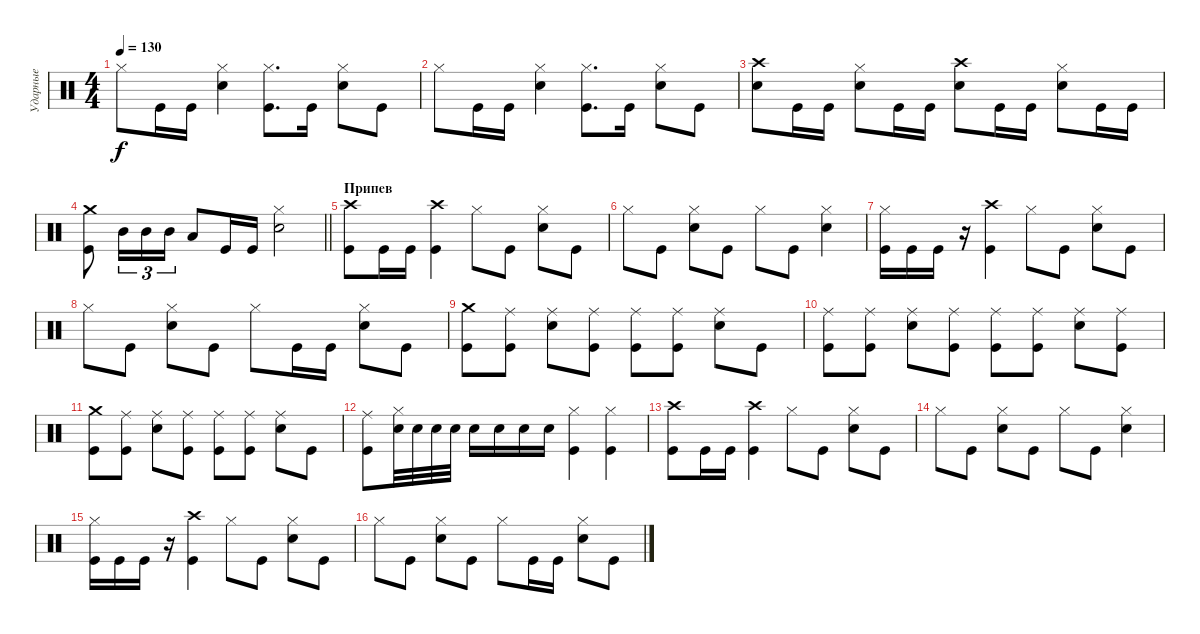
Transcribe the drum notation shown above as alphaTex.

\track ("Ударные" "Ударные") {instrument percussion}
\staff {score}
\articulation defaults
\ts (4 4)
\tempo 130
\clef neutral
\ks c "Hi-Hat (closed)".8{dy f} "Kick (hit)".16 "Kick (hit)".16
("Hi-Hat (closed)" "Snare (hit) 2").4 ("Hi-Hat (closed)" "Kick (hit)").8{d} "Kick (hit)".16 ("Hi-Hat (closed)" "Snare (hit) 2").8 "Kick (hit)".8 |
"Hi-Hat (closed)".8 "Kick (hit)".16 "Kick (hit)".16 ("Hi-Hat (closed)" "Snare (hit) 2").4 ("Hi-Hat (closed)" "Kick (hit)").8{d} "Kick (hit)".16 ("Hi-Hat (closed)" "Snare (hit) 2").8 "Kick (hit)".8 |
("Crash high (hit)" "Snare (hit) 2").8 "Kick (hit)".16 "Kick (hit)".16 ("Hi-Hat (closed)" "Snare (hit) 2").8 "Kick (hit)".16 "Kick (hit)".16 ("Crash high (hit)" "Snare (hit) 2").8 "Kick (hit)".16 "Kick (hit)".16 ("Hi-Hat (closed)" "Snare (hit) 2").8 "Kick (hit)".16 "Kick (hit)".16 |
\barLineRight lightlight
("Crash medium (hit)" "Kick (hit)").8 "Mid Tom (hit)".16{tu (3 2)} "Mid Tom (hit)".16{tu (3 2)} "Mid Tom (hit)".16{tu (3 2)} "Low Tom (hit)".8 "Kick (hit)".16 "Kick (hit)".16 ("Hi-Hat (closed)" "Snare (hit) 2").2 |
\section ("" "Припев")
("Crash high (hit)" "Kick (hit)").8 "Kick (hit)".16 "Kick (hit)".16 ("Crash high (hit)" "Kick (hit)").4 "Hi-Hat (closed)".8 "Kick (hit)".8 ("Hi-Hat (closed)" "Snare (hit) 2").8 "Kick (hit)".8 |
"Hi-Hat (closed)".8 "Kick (hit)".8 ("Hi-Hat (closed)" "Snare (hit) 2").8 "Kick (hit)".8 "Hi-Hat (closed)".8 "Kick (hit)".8 ("Hi-Hat (closed)" "Snare (hit) 2").4 |
("Hi-Hat (closed)" "Kick (hit)").16 "Kick (hit)".16 "Kick (hit)".16 r.16 ("Crash high (hit)" "Kick (hit)").4 "Hi-Hat (closed)".8 "Kick (hit)".8 ("Hi-Hat (closed)" "Snare (hit) 2").8 "Kick (hit)".8 |
"Hi-Hat (closed)".8 "Kick (hit)".8 ("Hi-Hat (closed)" "Snare (hit) 2").8 "Kick (hit)".8 "Hi-Hat (closed)".8 "Kick (hit)".16 "Kick (hit)".16 ("Hi-Hat (closed)" "Snare (hit) 2").8 "Kick (hit)".8 |
("Crash medium (hit)" "Kick (hit)").8 ("Ride (middle)" "Kick (hit)").8 ("Ride (middle)" "Snare (hit) 2").8 ("Ride (middle)" "Kick (hit)").8 ("Ride (middle)" "Kick (hit)").8 ("Ride (middle)" "Kick (hit)").8 ("Ride (middle)" "Snare (hit) 2").8 "Kick (hit)".8 |
("Ride (middle)" "Kick (hit)").8 ("Ride (middle)" "Kick (hit)").8 ("Ride (middle)" "Snare (hit) 2").8 ("Ride (middle)" "Kick (hit)").8 ("Ride (middle)" "Kick (hit)").8 ("Ride (middle)" "Kick (hit)").8 ("Ride (middle)" "Snare (hit) 2").8 ("Ride (middle)" "Kick (hit)").8 |
("Crash medium (hit)" "Kick (hit)").8 ("Ride (middle)" "Kick (hit)").8 ("Ride (middle)" "Snare (hit) 2").8 ("Ride (middle)" "Kick (hit)").8 ("Ride (middle)" "Kick (hit)").8 ("Ride (middle)" "Kick (hit)").8 ("Ride (middle)" "Snare (hit) 2").8 "Kick (hit)".8 |
("Ride (middle)" "Kick (hit)").8 ("Hi-Hat (closed)" "Snare (hit) 2").32 "Snare (hit) 2".32 "Snare (hit) 2".32 "Snare (hit) 2".32 "Snare (hit) 2".16 "Snare (hit) 2".16 "Snare (hit) 2".16 "Snare (hit) 2".16 ("Hi-Hat (closed)" "Kick (hit)").4 ("Hi-Hat (closed)" "Kick (hit)").4 |
("Crash high (hit)" "Kick (hit)").8 "Kick (hit)".16 "Kick (hit)".16 ("Crash high (hit)" "Kick (hit)").4 "Hi-Hat (closed)".8 "Kick (hit)".8 ("Hi-Hat (closed)" "Snare (hit) 2").8 "Kick (hit)".8 |
"Hi-Hat (closed)".8 "Kick (hit)".8 ("Hi-Hat (closed)" "Snare (hit) 2").8 "Kick (hit)".8 "Hi-Hat (closed)".8 "Kick (hit)".8 ("Hi-Hat (closed)" "Snare (hit) 2").4 |
("Hi-Hat (closed)" "Kick (hit)").16 "Kick (hit)".16 "Kick (hit)".16 r.16 ("Crash high (hit)" "Kick (hit)").4 "Hi-Hat (closed)".8 "Kick (hit)".8 ("Hi-Hat (closed)" "Snare (hit) 2").8 "Kick (hit)".8 |
"Hi-Hat (closed)".8 "Kick (hit)".8 ("Hi-Hat (closed)" "Snare (hit) 2").8 "Kick (hit)".8 "Hi-Hat (closed)".8 "Kick (hit)".16 "Kick (hit)".16 ("Hi-Hat (closed)" "Snare (hit) 2").8 "Kick (hit)".8
